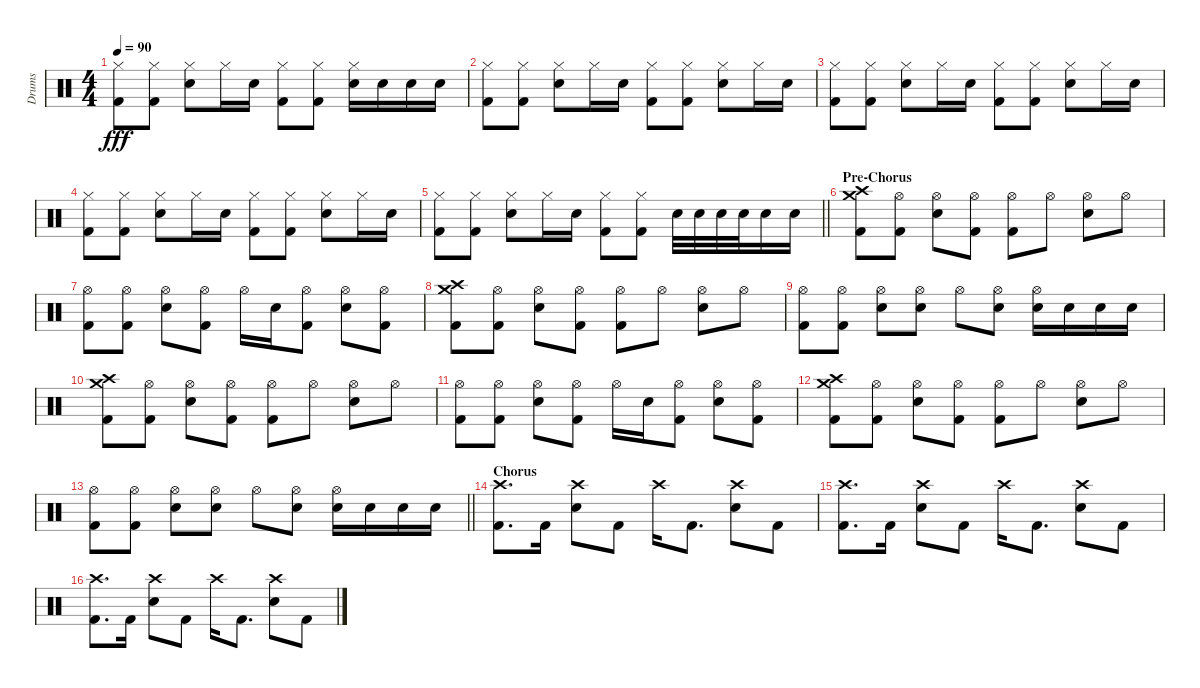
\track ("Drums" "Drums") {instrument percussion}
\staff {score}
\articulation defaults
\ts (4 4)
\tempo 90
\clef neutral
\ks c
("Hi-Hat (closed)" "Kick (hit) 2").8{dy fff} ("Hi-Hat (closed)" "Kick (hit) 2").8 ("Hi-Hat (closed)" "Electric Snare (hit)").8 "Hi-Hat (closed)".16 "Electric Snare (hit)".16 ("Hi-Hat (closed)" "Kick (hit) 2").8 ("Hi-Hat (closed)" "Kick (hit) 2").8 ("Hi-Hat (closed)" "Electric Snare (hit)").16 "Electric Snare (hit)".16 "Electric Snare (hit)".16 "Electric Snare (hit)".16 |
("Hi-Hat (closed)" "Kick (hit) 2").8 ("Hi-Hat (closed)" "Kick (hit) 2").8 ("Hi-Hat (closed)" "Electric Snare (hit)").8 "Hi-Hat (closed)".16 "Electric Snare (hit)".16 ("Hi-Hat (closed)" "Kick (hit) 2").8 ("Hi-Hat (closed)" "Kick (hit) 2").8 ("Hi-Hat (closed)" "Electric Snare (hit)").8 "Hi-Hat (closed)".16 "Electric Snare (hit)".16 |
("Hi-Hat (closed)" "Kick (hit) 2").8 ("Hi-Hat (closed)" "Kick (hit) 2").8 ("Hi-Hat (closed)" "Electric Snare (hit)").8 "Hi-Hat (closed)".16 "Electric Snare (hit)".16 ("Hi-Hat (closed)" "Kick (hit) 2").8 ("Hi-Hat (closed)" "Kick (hit) 2").8 ("Hi-Hat (closed)" "Electric Snare (hit)").8 "Hi-Hat (closed)".16 "Electric Snare (hit)".16 |
("Hi-Hat (closed)" "Kick (hit) 2").8 ("Hi-Hat (closed)" "Kick (hit) 2").8 ("Hi-Hat (closed)" "Electric Snare (hit)").8 "Hi-Hat (closed)".16 "Electric Snare (hit)".16 ("Hi-Hat (closed)" "Kick (hit) 2").8 ("Hi-Hat (closed)" "Kick (hit) 2").8 ("Hi-Hat (closed)" "Electric Snare (hit)").8 "Hi-Hat (closed)".16 "Electric Snare (hit)".16 |
\barLineRight lightlight
("Hi-Hat (closed)" "Kick (hit) 2").8 ("Hi-Hat (closed)" "Kick (hit) 2").8 ("Hi-Hat (closed)" "Electric Snare (hit)").8 "Hi-Hat (closed)".16 "Electric Snare (hit)".16 ("Hi-Hat (closed)" "Kick (hit) 2").8 ("Hi-Hat (closed)" "Kick (hit) 2").8 "Electric Snare (hit)".32 "Electric Snare (hit)".32 "Electric Snare (hit)".32 "Electric Snare (hit)".32 "Electric Snare (hit)".16 "Electric Snare (hit)".16 |
\section ("" "Pre-Chorus")
("Crash high (hit)" "Crash medium (hit)" "Kick (hit) 2").8 ("Hi-Hat (open)" "Kick (hit) 2").8 ("Hi-Hat (open)" "Electric Snare (hit)").8 ("Hi-Hat (open)" "Kick (hit) 2").8 ("Hi-Hat (open)" "Kick (hit) 2").8 "Hi-Hat (open)".8 ("Hi-Hat (open)" "Electric Snare (hit)").8 "Hi-Hat (open)".8 |
("Hi-Hat (open)" "Kick (hit) 2").8 ("Hi-Hat (open)" "Kick (hit) 2").8 ("Hi-Hat (open)" "Electric Snare (hit)").8 ("Hi-Hat (open)" "Kick (hit) 2").8 "Hi-Hat (open)".16 "Electric Snare (hit)".16 ("Hi-Hat (open)" "Kick (hit) 2").8 ("Hi-Hat (open)" "Electric Snare (hit)").8 ("Hi-Hat (open)" "Kick (hit) 2").8 |
("Crash high (hit)" "Crash medium (hit)" "Kick (hit) 2").8 ("Hi-Hat (open)" "Kick (hit) 2").8 ("Hi-Hat (open)" "Electric Snare (hit)").8 ("Hi-Hat (open)" "Kick (hit) 2").8 ("Hi-Hat (open)" "Kick (hit) 2").8 "Hi-Hat (open)".8 ("Hi-Hat (open)" "Electric Snare (hit)").8 "Hi-Hat (open)".8 |
("Hi-Hat (open)" "Kick (hit) 2").8 ("Hi-Hat (open)" "Kick (hit) 2").8 ("Hi-Hat (open)" "Electric Snare (hit)").8 ("Hi-Hat (open)" "Electric Snare (hit)").8 "Hi-Hat (open)".8 ("Hi-Hat (open)" "Electric Snare (hit)").8 ("Hi-Hat (open)" "Electric Snare (hit)").16 "Electric Snare (hit)".16 "Electric Snare (hit)".16 "Electric Snare (hit)".16 |
("Crash high (hit)" "Crash medium (hit)" "Kick (hit) 2").8 ("Hi-Hat (open)" "Kick (hit) 2").8 ("Hi-Hat (open)" "Electric Snare (hit)").8 ("Hi-Hat (open)" "Kick (hit) 2").8 ("Hi-Hat (open)" "Kick (hit) 2").8 "Hi-Hat (open)".8 ("Hi-Hat (open)" "Electric Snare (hit)").8 "Hi-Hat (open)".8 |
("Hi-Hat (open)" "Kick (hit) 2").8 ("Hi-Hat (open)" "Kick (hit) 2").8 ("Hi-Hat (open)" "Electric Snare (hit)").8 ("Hi-Hat (open)" "Kick (hit) 2").8 "Hi-Hat (open)".16 "Electric Snare (hit)".16 ("Hi-Hat (open)" "Kick (hit) 2").8 ("Hi-Hat (open)" "Electric Snare (hit)").8 ("Hi-Hat (open)" "Kick (hit) 2").8 |
("Crash high (hit)" "Crash medium (hit)" "Kick (hit) 2").8 ("Hi-Hat (open)" "Kick (hit) 2").8 ("Hi-Hat (open)" "Electric Snare (hit)").8 ("Hi-Hat (open)" "Kick (hit) 2").8 ("Hi-Hat (open)" "Kick (hit) 2").8 "Hi-Hat (open)".8 ("Hi-Hat (open)" "Electric Snare (hit)").8 "Hi-Hat (open)".8 |
\barLineRight lightlight
("Hi-Hat (open)" "Kick (hit) 2").8 ("Hi-Hat (open)" "Kick (hit) 2").8 ("Hi-Hat (open)" "Electric Snare (hit)").8 ("Hi-Hat (open)" "Electric Snare (hit)").8 "Hi-Hat (open)".8 ("Hi-Hat (open)" "Electric Snare (hit)").8 ("Hi-Hat (open)" "Electric Snare (hit)").16 "Electric Snare (hit)".16 "Electric Snare (hit)".16 "Electric Snare (hit)".16 |
\section ("" "Chorus")
("Crash high (hit)" "Kick (hit) 2").8{d} "Kick (hit) 2".16 ("Crash high (hit)" "Electric Snare (hit)").8 "Kick (hit) 2".8 "Crash high (hit)".16 "Kick (hit) 2".8{d} ("Crash high (hit)" "Electric Snare (hit)").8 "Kick (hit) 2".8 |
("Crash high (hit)" "Kick (hit) 2").8{d} "Kick (hit) 2".16 ("Crash high (hit)" "Electric Snare (hit)").8 "Kick (hit) 2".8 "Crash high (hit)".16 "Kick (hit) 2".8{d} ("Crash high (hit)" "Electric Snare (hit)").8 "Kick (hit) 2".8 |
("Crash high (hit)" "Kick (hit) 2").8{d} "Kick (hit) 2".16 ("Crash high (hit)" "Electric Snare (hit)").8 "Kick (hit) 2".8 "Crash high (hit)".16 "Kick (hit) 2".8{d} ("Crash high (hit)" "Electric Snare (hit)").8 "Kick (hit) 2".8
